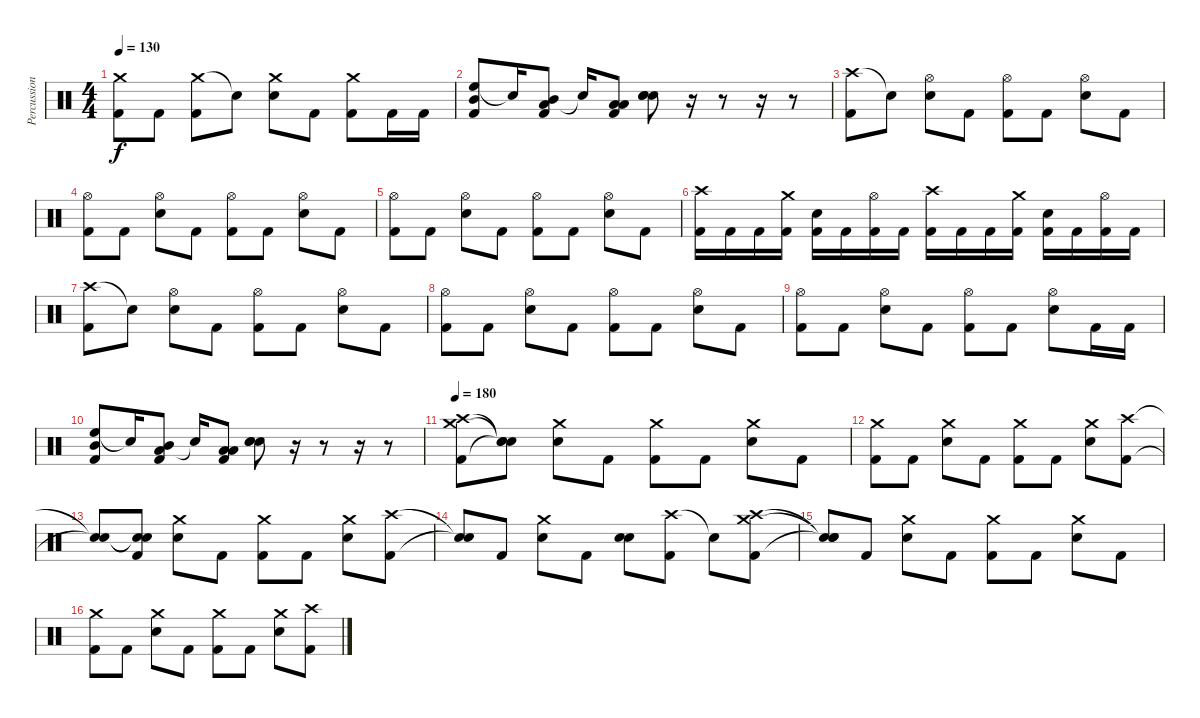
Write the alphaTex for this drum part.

\track ("Percussion" "Percussion") {instrument percussion}
\staff {score}
\articulation defaults
\ts (4 4)
\tempo 130
\clef neutral
\ks c
("Crash medium (hit)" "Kick (hit) 2").8{dy f} "Kick (hit) 2".8 ("Crash medium (hit)" "Kick (hit) 2").8 "Snare (hit)"{t}.8 ("Crash medium (hit)" "Snare (hit) 2").8 "Kick (hit) 2".8 ("Crash medium (hit)" "Kick (hit) 2").8 "Kick (hit) 2".16 "Kick (hit) 2".16 |
("High Floor Tom (hit)" "Mid Tom (hit)" "Kick (hit) 2").8 "Snare (hit)"{t}.16 ("Low Floor Tom (hit)" "Mid Tom (hit)" "Kick (hit) 2").8 "Snare (hit)"{t}.16 ("Low Floor Tom (hit)" "Low Floor Tom (hit)" "Kick (hit) 2").8 ("Snare (hit) 2" "Snare (hit) 2" "Snare (hit) 2").8 r.16 r.8 r.16 r.8 |
("Crash high (hit)" "Kick (hit) 2").8 "Snare (hit)"{t}.8 ("Hi-Hat (open)" "Snare (hit) 2").8 "Kick (hit) 2".8 ("Hi-Hat (open)" "Kick (hit) 2").8 "Kick (hit) 2".8 ("Hi-Hat (open)" "Snare (hit) 2").8 "Kick (hit) 2".8 |
("Hi-Hat (open)" "Kick (hit) 2").8 "Kick (hit) 2".8 ("Hi-Hat (open)" "Snare (hit) 2").8 "Kick (hit) 2".8 ("Hi-Hat (open)" "Kick (hit) 2").8 "Kick (hit) 2".8 ("Hi-Hat (open)" "Snare (hit) 2").8 "Kick (hit) 2".8 |
("Hi-Hat (open)" "Kick (hit) 2").8 "Kick (hit) 2".8 ("Hi-Hat (open)" "Snare (hit) 2").8 "Kick (hit) 2".8 ("Hi-Hat (open)" "Kick (hit) 2").8 "Kick (hit) 2".8 ("Hi-Hat (open)" "Snare (hit) 2").8 "Kick (hit) 2".8 |
("Crash high (hit)" "Kick (hit) 2").16 "Kick (hit) 2".16 "Kick (hit) 2".16 ("Crash medium (hit)" "Kick (hit) 2").16 ("Snare (hit) 2" "Kick (hit) 2").16 "Kick (hit) 2".16 ("Hi-Hat (open)" "Kick (hit) 2").16 "Kick (hit) 2".16 ("Crash high (hit)" "Kick (hit) 2").16 "Kick (hit) 2".16 "Kick (hit) 2".16 ("Crash medium (hit)" "Kick (hit) 2").16 ("Snare (hit) 2" "Kick (hit) 2").16 "Kick (hit) 2".16 ("Hi-Hat (open)" "Kick (hit) 2").16 "Kick (hit) 2".16 |
("Crash high (hit)" "Kick (hit) 2").8 "Snare (hit)"{t}.8 ("Hi-Hat (open)" "Snare (hit) 2").8 "Kick (hit) 2".8 ("Hi-Hat (open)" "Kick (hit) 2").8 "Kick (hit) 2".8 ("Hi-Hat (open)" "Snare (hit) 2").8 "Kick (hit) 2".8 |
("Hi-Hat (open)" "Kick (hit) 2").8 "Kick (hit) 2".8 ("Hi-Hat (open)" "Snare (hit) 2").8 "Kick (hit) 2".8 ("Hi-Hat (open)" "Kick (hit) 2").8 "Kick (hit) 2".8 ("Hi-Hat (open)" "Snare (hit) 2").8 "Kick (hit) 2".8 |
("Hi-Hat (open)" "Kick (hit) 2").8 "Kick (hit) 2".8 ("Hi-Hat (open)" "Snare (hit) 2").8 "Kick (hit) 2".8 ("Hi-Hat (open)" "Kick (hit) 2").8 "Kick (hit) 2".8 ("Hi-Hat (open)" "Snare (hit) 2").8 "Kick (hit) 2".16 "Kick (hit) 2".16 |
("High Floor Tom (hit)" "Mid Tom (hit)" "Kick (hit) 2").8 "Snare (hit)"{t}.16 ("Low Floor Tom (hit)" "Mid Tom (hit)" "Kick (hit) 2").8 "Snare (hit)"{t}.16 ("Low Floor Tom (hit)" "Low Floor Tom (hit)" "Kick (hit) 2").8 ("Snare (hit) 2" "Snare (hit) 2" "Snare (hit) 2").8 r.16 r.8 r.16 r.8 |
\tempo 180
("Crash high (hit)" "Crash medium (hit)" "Kick (hit) 2").8 ("Snare (hit)"{t} "Snare (hit)"{t} "Snare (hit)"{t}).8 ("Crash medium (hit)" "Snare (hit) 2").8 "Kick (hit) 2".8 ("Crash medium (hit)" "Kick (hit) 2").8 "Kick (hit) 2".8 ("Crash medium (hit)" "Snare (hit) 2").8 "Kick (hit) 2".8 |
("Crash medium (hit)" "Kick (hit) 2").8 "Kick (hit) 2".8 ("Crash medium (hit)" "Snare (hit) 2").8 "Kick (hit) 2".8 ("Crash medium (hit)" "Kick (hit) 2").8 "Kick (hit) 2".8 ("Crash medium (hit)" "Snare (hit) 2").8 ("Crash high (hit)" "Kick (hit) 2").8 |
("Snare (hit)"{t} "Snare (hit)"{t}).8 ("Snare (hit)"{t} "Snare (hit)"{t} "Kick (hit) 2").8 ("Crash medium (hit)" "Snare (hit) 2").8 "Kick (hit) 2".8 ("Crash medium (hit)" "Kick (hit) 2").8 "Kick (hit) 2".8 ("Crash medium (hit)" "Snare (hit) 2").8 ("Crash high (hit)" "Kick (hit) 2").8 |
("Snare (hit)"{t} "Snare (hit)"{t}).8 "Kick (hit) 2".8 ("Crash medium (hit)" "Snare (hit) 2").8 "Kick (hit) 2".8 ("Snare (hit) 2" "Snare (hit) 2").8 ("Crash high (hit)" "Kick (hit) 2").8 "Snare (hit)"{t}.8 ("Crash high (hit)" "Crash medium (hit)" "Kick (hit) 2").8 |
("Snare (hit)"{t} "Snare (hit)"{t} "Snare (hit)"{t}).8 "Kick (hit) 2".8 ("Crash medium (hit)" "Snare (hit) 2").8 "Kick (hit) 2".8 ("Crash medium (hit)" "Kick (hit) 2").8 "Kick (hit) 2".8 ("Crash medium (hit)" "Snare (hit) 2").8 "Kick (hit) 2".8 |
("Crash medium (hit)" "Kick (hit) 2").8 "Kick (hit) 2".8 ("Crash medium (hit)" "Snare (hit) 2").8 "Kick (hit) 2".8 ("Crash medium (hit)" "Kick (hit) 2").8 "Kick (hit) 2".8 ("Crash medium (hit)" "Snare (hit) 2").8 ("Crash high (hit)" "Kick (hit) 2").8
